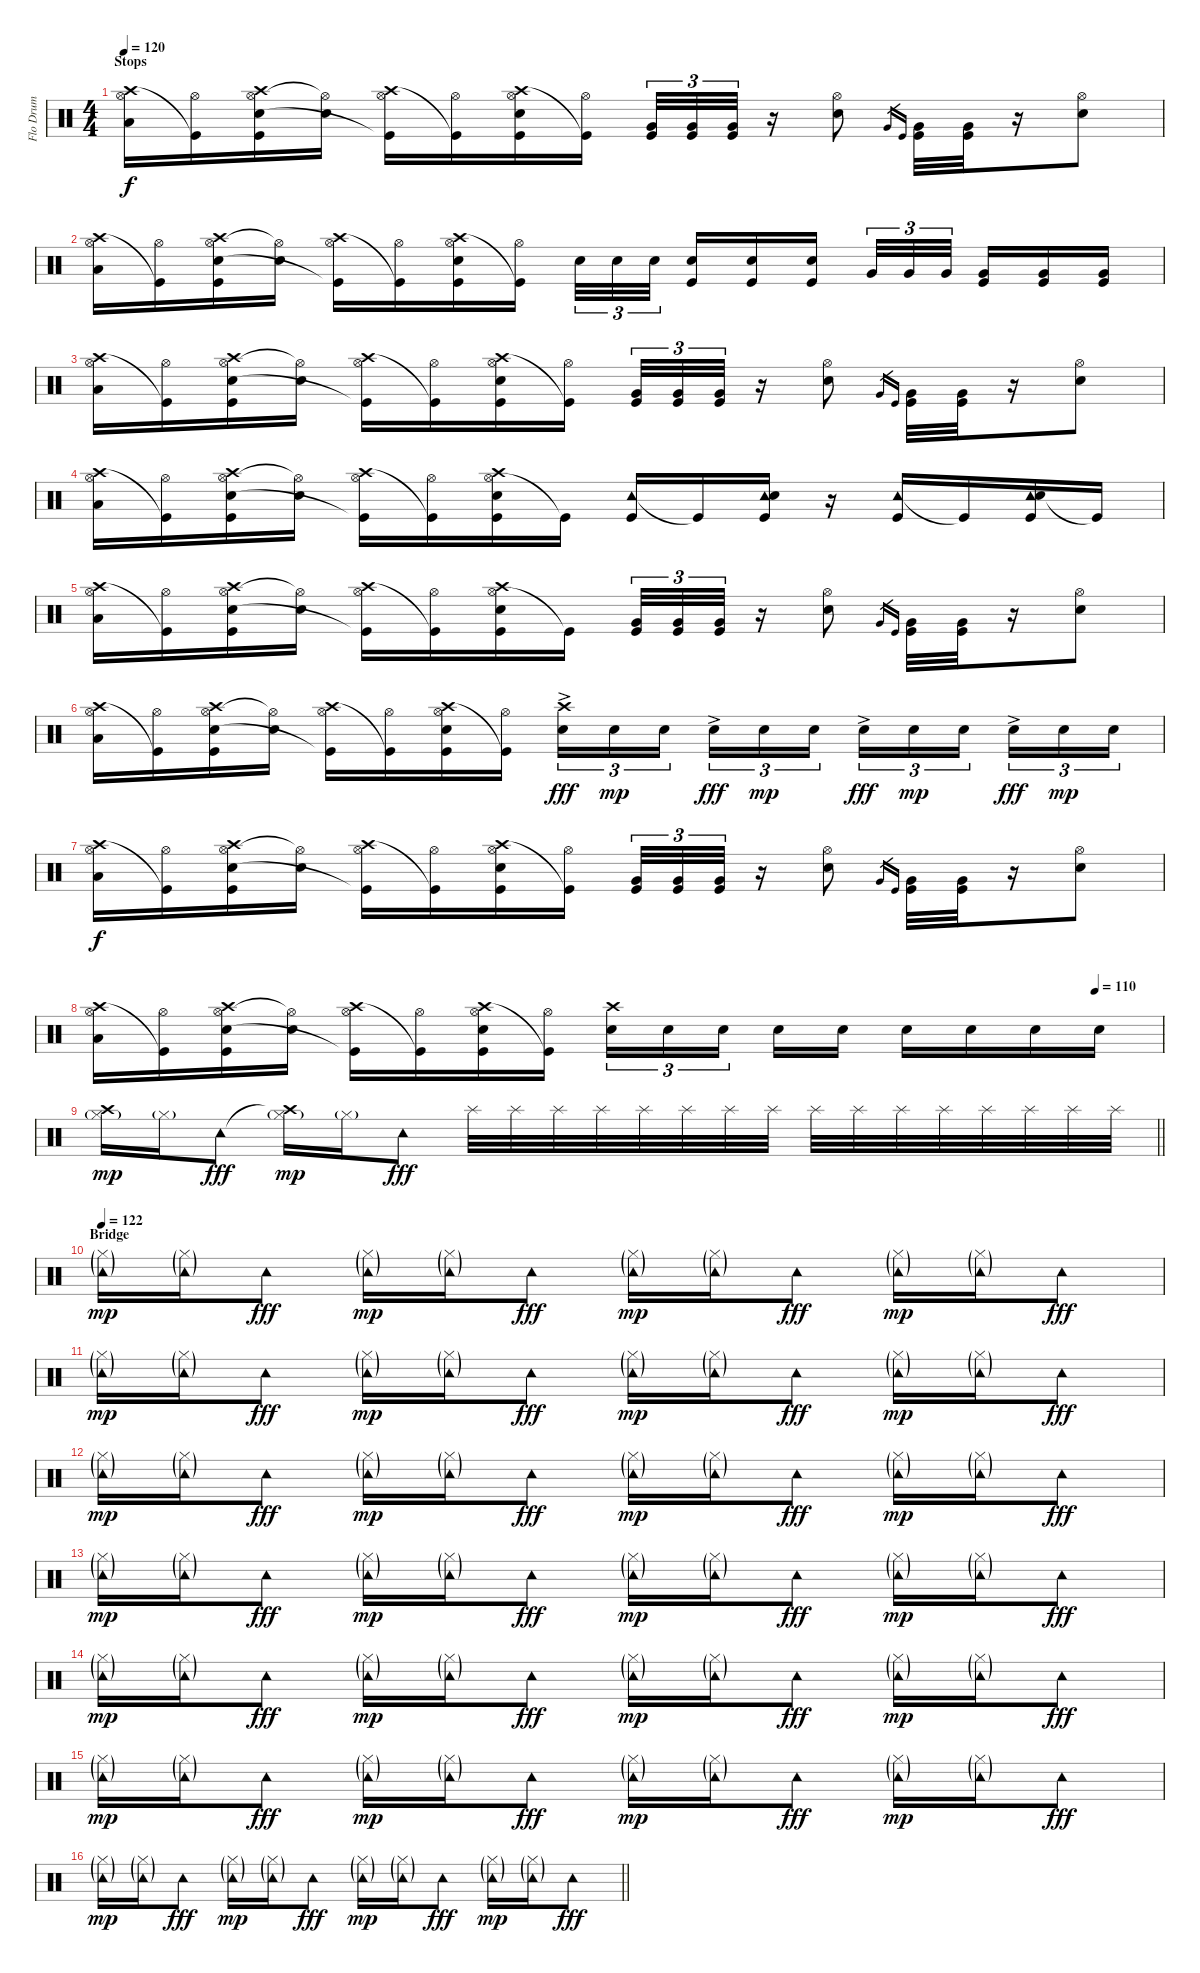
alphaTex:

\track ("Flo Drum" "Flo Drum") {instrument percussion}
\staff {score}
\articulation defaults
\ts (4 4)
\section ("" "Stops")
\tempo 120
\clef neutral
\ks c
("Hi-Hat (open)" "Crash high (hit)" "Low Floor Tom (hit)").16{dy f volume 16} ("Hi-Hat (open)" "Kick (hit)"{t}).16 ("Hi-Hat (open)" "Crash high (hit)" "Snare (hit) 2" "Kick (hit)").16 ("Hi-Hat (open)"{t} "Snare (hit) 2").16 ("Hi-Hat (open)" "Crash high (hit)" "Kick (hit)"{t}).16 ("Hi-Hat (open)" "Kick (hit)"{t}).16 ("Hi-Hat (open)" "Crash high (hit)" "Snare (hit) 2" "Kick (hit)").16 ("Hi-Hat (open)" "Kick (hit)"{t}).16 ("Very Low Tom (hit)" "Kick (hit)").32{tu (3 2)} ("Very Low Tom (hit)" "Kick (hit)").32{tu (3 2)} ("Very Low Tom (hit)" "Kick (hit)").32{tu (3 2)} r.16 ("Hi-Hat (open)" "Snare (hit) 2").8 "Very Low Tom (hit)".16{gr} "Kick (hit)".16{gr} ("Very Low Tom (hit)" "Kick (hit)").32 ("Very Low Tom (hit)" "Kick (hit)").32 r.16 ("Hi-Hat (open)" "Snare (hit) 2").8 |
("Hi-Hat (open)" "Crash high (hit)" "Low Floor Tom (hit)").16 ("Hi-Hat (open)" "Kick (hit)"{t}).16 ("Hi-Hat (open)" "Crash high (hit)" "Snare (hit) 2" "Kick (hit)").16 ("Hi-Hat (open)"{t} "Snare (hit) 2").16 ("Hi-Hat (open)" "Crash high (hit)" "Kick (hit)"{t}).16 ("Hi-Hat (open)" "Kick (hit)"{t}).16 ("Hi-Hat (open)" "Crash high (hit)" "Snare (hit) 2" "Kick (hit)").16 ("Hi-Hat (open)" "Kick (hit)"{t}).16 "Snare (hit) 2".32{tu (3 2)} "Snare (hit) 2".32{tu (3 2)} "Snare (hit) 2".32{tu (3 2) beam splitsecondary} ("Snare (hit) 2" "Kick (hit)").16 ("Snare (hit) 2" "Kick (hit)").16 ("Snare (hit) 2" "Kick (hit)").16 "Very Low Tom (hit)".32{tu (3 2)} "Very Low Tom (hit)".32{tu (3 2)} "Very Low Tom (hit)".32{tu (3 2) beam splitsecondary} ("Very Low Tom (hit)" "Kick (hit)").16 ("Very Low Tom (hit)" "Kick (hit)").16 ("Very Low Tom (hit)" "Kick (hit)").16 |
("Hi-Hat (open)" "Crash high (hit)" "Low Floor Tom (hit)").16 ("Hi-Hat (open)" "Kick (hit)"{t}).16 ("Hi-Hat (open)" "Crash high (hit)" "Snare (hit) 2" "Kick (hit)").16 ("Hi-Hat (open)"{t} "Snare (hit) 2").16 ("Hi-Hat (open)" "Crash high (hit)" "Kick (hit)"{t}).16 ("Hi-Hat (open)" "Kick (hit)"{t}).16 ("Hi-Hat (open)" "Crash high (hit)" "Snare (hit) 2" "Kick (hit)").16 ("Hi-Hat (open)" "Kick (hit)"{t}).16 ("Very Low Tom (hit)" "Kick (hit)").32{tu (3 2)} ("Very Low Tom (hit)" "Kick (hit)").32{tu (3 2)} ("Very Low Tom (hit)" "Kick (hit)").32{tu (3 2)} r.16 ("Hi-Hat (open)" "Snare (hit) 2").8 "Very Low Tom (hit)".16{gr} "Kick (hit)".16{gr} ("Very Low Tom (hit)" "Kick (hit)").32 ("Very Low Tom (hit)" "Kick (hit)").32 r.16 ("Hi-Hat (open)" "Snare (hit) 2").8 |
("Hi-Hat (open)" "Crash high (hit)" "Low Floor Tom (hit)").16 ("Hi-Hat (open)" "Kick (hit)"{t}).16 ("Hi-Hat (open)" "Crash high (hit)" "Snare (hit) 2" "Kick (hit)").16 ("Hi-Hat (open)"{t} "Snare (hit) 2").16 ("Hi-Hat (open)" "Crash high (hit)" "Kick (hit)"{t}).16 ("Hi-Hat (open)" "Kick (hit)"{t}).16 ("Hi-Hat (open)" "Crash high (hit)" "Snare (hit) 2" "Kick (hit)").16 "Kick (hit)"{t}.16 ("Tambourine (hit)" "Kick (hit)").16 "Kick (hit)"{t}.16 ("Tambourine (hit)" "Snare (hit) 2" "Kick (hit)").16 r.16 ("Tambourine (hit)" "Kick (hit)").16 "Kick (hit)"{t}.16 ("Tambourine (hit)" "Snare (hit) 2" "Kick (hit)").16 "Kick (hit)"{t}.16 |
("Hi-Hat (open)" "Crash high (hit)" "Low Floor Tom (hit)").16 ("Hi-Hat (open)" "Kick (hit)"{t}).16 ("Hi-Hat (open)" "Crash high (hit)" "Snare (hit) 2" "Kick (hit)").16 ("Hi-Hat (open)"{t} "Snare (hit) 2").16 ("Hi-Hat (open)" "Crash high (hit)" "Kick (hit)"{t}).16 ("Hi-Hat (open)" "Kick (hit)"{t}).16 ("Hi-Hat (open)" "Crash high (hit)" "Snare (hit) 2" "Kick (hit)").16 "Kick (hit)"{t}.16 ("Very Low Tom (hit)" "Kick (hit)").32{tu (3 2)} ("Very Low Tom (hit)" "Kick (hit)").32{tu (3 2)} ("Very Low Tom (hit)" "Kick (hit)").32{tu (3 2)} r.16 ("Hi-Hat (open)" "Snare (hit) 2").8 "Very Low Tom (hit)".16{gr} "Kick (hit)".16{gr} ("Very Low Tom (hit)" "Kick (hit)").32 ("Very Low Tom (hit)" "Kick (hit)").32 r.16 ("Hi-Hat (open)" "Snare (hit) 2").8 |
("Hi-Hat (open)" "Crash high (hit)" "Low Floor Tom (hit)").16 ("Hi-Hat (open)" "Kick (hit)"{t}).16 ("Hi-Hat (open)" "Crash high (hit)" "Snare (hit) 2" "Kick (hit)").16 ("Hi-Hat (open)"{t} "Snare (hit) 2").16 ("Hi-Hat (open)" "Crash high (hit)" "Kick (hit)"{t}).16 ("Hi-Hat (open)" "Kick (hit)"{t}).16 ("Hi-Hat (open)" "Crash high (hit)" "Snare (hit) 2" "Kick (hit)").16 ("Hi-Hat (open)" "Kick (hit)"{t}).16 ("Crash high (hit)" "Electric Snare (hit)"{ac}).16{tu (3 2) dy fff} "Electric Snare (hit)".16{tu (3 2) dy mp} "Electric Snare (hit)".16{tu (3 2) beam splitsecondary} "Electric Snare (hit)"{ac}.16{tu (3 2) dy fff} "Electric Snare (hit)".16{tu (3 2) dy mp} "Electric Snare (hit)".16{tu (3 2)} "Electric Snare (hit)"{ac}.16{tu (3 2) dy fff} "Electric Snare (hit)".16{tu (3 2) dy mp} "Electric Snare (hit)".16{tu (3 2) beam splitsecondary} "Electric Snare (hit)"{ac}.16{tu (3 2) dy fff} "Electric Snare (hit)".16{tu (3 2) dy mp} "Electric Snare (hit)".16{tu (3 2)} |
("Hi-Hat (open)" "Crash high (hit)" "Low Floor Tom (hit)").16{dy f} ("Hi-Hat (open)" "Kick (hit)"{t}).16 ("Hi-Hat (open)" "Crash high (hit)" "Snare (hit) 2" "Kick (hit)").16 ("Hi-Hat (open)"{t} "Snare (hit) 2").16 ("Hi-Hat (open)" "Crash high (hit)" "Kick (hit)"{t}).16 ("Hi-Hat (open)" "Kick (hit)"{t}).16 ("Hi-Hat (open)" "Crash high (hit)" "Snare (hit) 2" "Kick (hit)").16 ("Hi-Hat (open)" "Kick (hit)"{t}).16 ("Very Low Tom (hit)" "Kick (hit)").32{tu (3 2)} ("Very Low Tom (hit)" "Kick (hit)").32{tu (3 2)} ("Very Low Tom (hit)" "Kick (hit)").32{tu (3 2)} r.16 ("Hi-Hat (open)" "Snare (hit) 2").8 "Very Low Tom (hit)".16{gr} "Kick (hit)".16{gr} ("Very Low Tom (hit)" "Kick (hit)").32 ("Very Low Tom (hit)" "Kick (hit)").32 r.16 ("Hi-Hat (open)" "Snare (hit) 2").8 |
\tempo (110 0.9375)
("Hi-Hat (open)" "Crash high (hit)" "Low Floor Tom (hit)").16 ("Hi-Hat (open)" "Kick (hit)"{t}).16 ("Hi-Hat (open)" "Crash high (hit)" "Snare (hit) 2" "Kick (hit)").16 ("Hi-Hat (open)"{t} "Snare (hit) 2").16 ("Hi-Hat (open)" "Crash high (hit)" "Kick (hit)"{t}).16 ("Hi-Hat (open)" "Kick (hit)"{t}).16 ("Hi-Hat (open)" "Crash high (hit)" "Snare (hit) 2" "Kick (hit)").16 ("Hi-Hat (open)" "Kick (hit)"{t}).16 ("Crash high (hit)" "Electric Snare (hit)").16{tu (3 2)} "Electric Snare (hit)".16{tu (3 2)} "Electric Snare (hit)".16{tu (3 2) beam splitsecondary} "Electric Snare (hit)".16 "Electric Snare (hit)".16 "Electric Snare (hit)".16 "Electric Snare (hit)".16 "Electric Snare (hit)".16 "Electric Snare (hit)".16 |
\barLineRight lightlight
("Crash high (hit)" "Hi-Hat (closed)"{g}).16{dy mp} "Hi-Hat (closed)"{g}.16 "Tambourine (hit)".8{dy fff} ("Crash high (hit)"{t} "Hi-Hat (closed)"{g}).16{dy mp} "Hi-Hat (closed)"{g}.16 "Tambourine (hit)".8{dy fff} "Splash (hit)".32{volume 3} "Splash (hit)".32{volume 13} "Splash (hit)".32 "Splash (hit)".32 "Splash (hit)".32 "Splash (hit)".32 "Splash (hit)".32 "Splash (hit)".32 "Splash (hit)".32 "Splash (hit)".32 "Splash (hit)".32 "Splash (hit)".32 "Splash (hit)".32 "Splash (hit)".32 "Splash (hit)".32 "Splash (hit)".32 |
\section ("" "Bridge")
\tempo 122
("Tambourine (hit)"{g} "Hi-Hat (closed)"{g}).16{dy mp} ("Tambourine (hit)"{g} "Hi-Hat (closed)"{g}).16 "Tambourine (hit)".8{dy fff} ("Tambourine (hit)"{g} "Hi-Hat (closed)"{g}).16{dy mp} ("Tambourine (hit)"{g} "Hi-Hat (closed)"{g}).16 "Tambourine (hit)".8{dy fff} ("Tambourine (hit)"{g} "Hi-Hat (closed)"{g}).16{dy mp} ("Tambourine (hit)"{g} "Hi-Hat (closed)"{g}).16 "Tambourine (hit)".8{dy fff} ("Tambourine (hit)"{g} "Hi-Hat (closed)"{g}).16{dy mp} ("Tambourine (hit)"{g} "Hi-Hat (closed)"{g}).16 "Tambourine (hit)".8{dy fff} |
("Tambourine (hit)"{g} "Hi-Hat (closed)"{g}).16{dy mp} ("Tambourine (hit)"{g} "Hi-Hat (closed)"{g}).16 "Tambourine (hit)".8{dy fff} ("Tambourine (hit)"{g} "Hi-Hat (closed)"{g}).16{dy mp} ("Tambourine (hit)"{g} "Hi-Hat (closed)"{g}).16 "Tambourine (hit)".8{dy fff} ("Tambourine (hit)"{g} "Hi-Hat (closed)"{g}).16{dy mp} ("Tambourine (hit)"{g} "Hi-Hat (closed)"{g}).16 "Tambourine (hit)".8{dy fff} ("Tambourine (hit)"{g} "Hi-Hat (closed)"{g}).16{dy mp} ("Tambourine (hit)"{g} "Hi-Hat (closed)"{g}).16 "Tambourine (hit)".8{dy fff} |
("Tambourine (hit)"{g} "Hi-Hat (closed)"{g}).16{dy mp} ("Tambourine (hit)"{g} "Hi-Hat (closed)"{g}).16 "Tambourine (hit)".8{dy fff} ("Tambourine (hit)"{g} "Hi-Hat (closed)"{g}).16{dy mp} ("Tambourine (hit)"{g} "Hi-Hat (closed)"{g}).16 "Tambourine (hit)".8{dy fff} ("Tambourine (hit)"{g} "Hi-Hat (closed)"{g}).16{dy mp} ("Tambourine (hit)"{g} "Hi-Hat (closed)"{g}).16 "Tambourine (hit)".8{dy fff} ("Tambourine (hit)"{g} "Hi-Hat (closed)"{g}).16{dy mp} ("Tambourine (hit)"{g} "Hi-Hat (closed)"{g}).16 "Tambourine (hit)".8{dy fff} |
("Tambourine (hit)"{g} "Hi-Hat (closed)"{g}).16{dy mp} ("Tambourine (hit)"{g} "Hi-Hat (closed)"{g}).16 "Tambourine (hit)".8{dy fff} ("Tambourine (hit)"{g} "Hi-Hat (closed)"{g}).16{dy mp} ("Tambourine (hit)"{g} "Hi-Hat (closed)"{g}).16 "Tambourine (hit)".8{dy fff} ("Tambourine (hit)"{g} "Hi-Hat (closed)"{g}).16{dy mp} ("Tambourine (hit)"{g} "Hi-Hat (closed)"{g}).16 "Tambourine (hit)".8{dy fff} ("Tambourine (hit)"{g} "Hi-Hat (closed)"{g}).16{dy mp} ("Tambourine (hit)"{g} "Hi-Hat (closed)"{g}).16 "Tambourine (hit)".8{dy fff} |
("Tambourine (hit)"{g} "Hi-Hat (closed)"{g}).16{dy mp} ("Tambourine (hit)"{g} "Hi-Hat (closed)"{g}).16 "Tambourine (hit)".8{dy fff} ("Tambourine (hit)"{g} "Hi-Hat (closed)"{g}).16{dy mp} ("Tambourine (hit)"{g} "Hi-Hat (closed)"{g}).16 "Tambourine (hit)".8{dy fff} ("Tambourine (hit)"{g} "Hi-Hat (closed)"{g}).16{dy mp} ("Tambourine (hit)"{g} "Hi-Hat (closed)"{g}).16 "Tambourine (hit)".8{dy fff} ("Tambourine (hit)"{g} "Hi-Hat (closed)"{g}).16{dy mp} ("Tambourine (hit)"{g} "Hi-Hat (closed)"{g}).16 "Tambourine (hit)".8{dy fff} |
("Tambourine (hit)"{g} "Hi-Hat (closed)"{g}).16{dy mp} ("Tambourine (hit)"{g} "Hi-Hat (closed)"{g}).16 "Tambourine (hit)".8{dy fff} ("Tambourine (hit)"{g} "Hi-Hat (closed)"{g}).16{dy mp} ("Tambourine (hit)"{g} "Hi-Hat (closed)"{g}).16 "Tambourine (hit)".8{dy fff} ("Tambourine (hit)"{g} "Hi-Hat (closed)"{g}).16{dy mp} ("Tambourine (hit)"{g} "Hi-Hat (closed)"{g}).16 "Tambourine (hit)".8{dy fff} ("Tambourine (hit)"{g} "Hi-Hat (closed)"{g}).16{dy mp} ("Tambourine (hit)"{g} "Hi-Hat (closed)"{g}).16 "Tambourine (hit)".8{dy fff} |
\barLineRight lightlight
("Tambourine (hit)"{g} "Hi-Hat (closed)"{g}).16{dy mp} ("Tambourine (hit)"{g} "Hi-Hat (closed)"{g}).16 "Tambourine (hit)".8{dy fff} ("Tambourine (hit)"{g} "Hi-Hat (closed)"{g}).16{dy mp} ("Tambourine (hit)"{g} "Hi-Hat (closed)"{g}).16 "Tambourine (hit)".8{dy fff} ("Tambourine (hit)"{g} "Hi-Hat (closed)"{g}).16{dy mp} ("Tambourine (hit)"{g} "Hi-Hat (closed)"{g}).16 "Tambourine (hit)".8{dy fff} ("Tambourine (hit)"{g} "Hi-Hat (closed)"{g}).16{dy mp} ("Tambourine (hit)"{g} "Hi-Hat (closed)"{g}).16 "Tambourine (hit)".8{dy fff}
